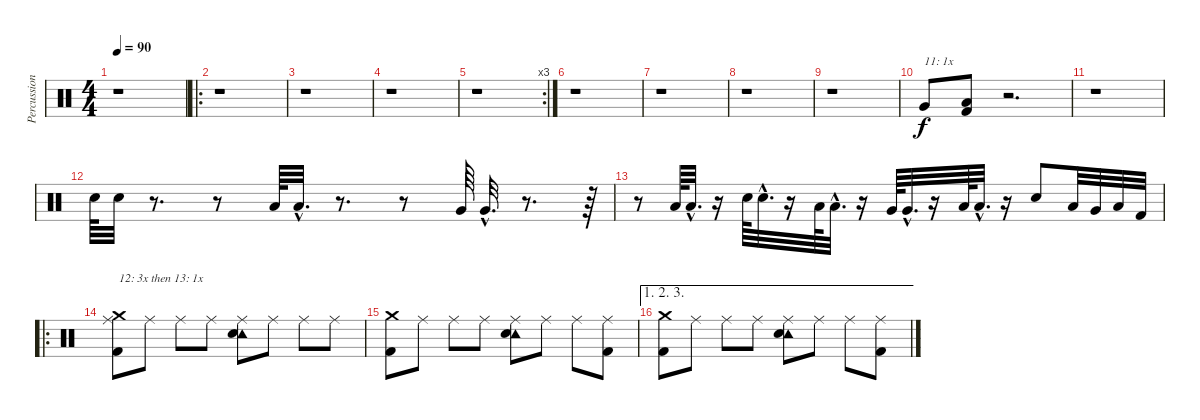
\track ("Percussion" "Percussion") {instrument percussion}
\staff {score}
\articulation defaults
\ts (4 4)
\tempo 90
\clef neutral
\ks c
r.1{dy f} |
\ro
r.1 |
r.1 |
r.1 |
\rc 3
r.1 |
r.1 |
r.1 |
r.1 |
r.1 |
"Very Low Tom (hit)".8{txt "11: 1x"} ("Kick (hit) 2" "Low Floor Tom (hit)").8 r.2{d} |
r.1 |
"Electric Snare (hit)".64 "Electric Snare (hit)".32 r.8{d} r.8 "Low Tom (hit)".64 "Low Tom (hit)"{hac}.32{d} r.8{d} r.8 "Very Low Tom (hit)".64 "Very Low Tom (hit)"{hac}.32{d} r.8{d} r.64 |
r.8 "Low Floor Tom (hit)".64 "Low Floor Tom (hit)"{hac}.32{d} r.16 "Electric Snare (hit)".64 "Electric Snare (hit)"{hac}.32{d} r.16 "Low Tom (hit)".64 "Low Tom (hit)"{hac}.32{d} r.16 "Very Low Tom (hit)".64 "Very Low Tom (hit)"{hac}.32{d} r.16 "Low Floor Tom (hit)".64 "Low Floor Tom (hit)"{hac}.32{d} r.16 "Electric Snare (hit)".8 "Low Tom (hit)".32 "Very Low Tom (hit)".32 "Low Floor Tom (hit)".32 "Kick (hit) 2".32 |
\ro
("Kick (hit) 2" "Crash medium (hit)" "Ride (middle)").8{txt "12: 3x then 13: 1x"} "Ride (middle)".8 "Ride (middle)".8 "Ride (middle)".8 ("Tambourine (hit)" "Electric Snare (hit)" "Ride (middle)").8 "Ride (middle)".8 "Ride (middle)".8 "Ride (middle)".8 |
("Crash medium (hit)" "Kick (hit) 2").8 "Ride (middle)".8 "Ride (middle)".8 "Ride (middle)".8 ("Tambourine (hit)" "Electric Snare (hit)" "Ride (middle)").8 "Ride (middle)".8 "Ride (middle)".8 ("Kick (hit) 2" "Ride (middle)").8 |
\ae (1 2 3)
("Crash medium (hit)" "Kick (hit) 2").8 "Ride (middle)".8 "Ride (middle)".8 "Ride (middle)".8 ("Tambourine (hit)" "Electric Snare (hit)" "Ride (middle)").8 "Ride (middle)".8 "Ride (middle)".8 ("Kick (hit) 2" "Ride (middle)").8
